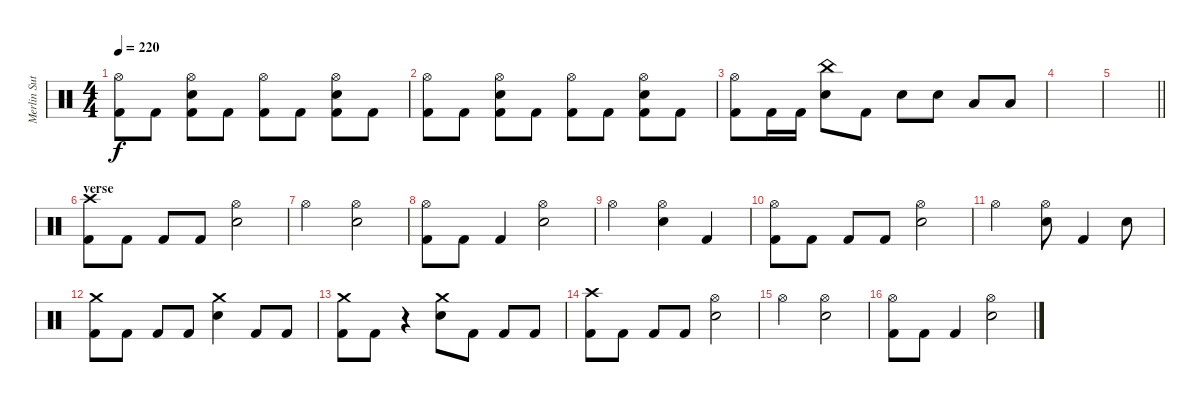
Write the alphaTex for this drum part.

\track ("Merlin Sutter" "Merlin Sut") {instrument percussion}
\staff {score}
\articulation defaults
\ts (4 4)
\tempo 220
\clef neutral
\ks c
("Hi-Hat (open)" "Kick (hit) 2").8{dy f} "Kick (hit) 2".8 ("Hi-Hat (open)" "Snare (hit) 2" "Kick (hit) 2").8 "Kick (hit) 2".8 ("Hi-Hat (open)" "Kick (hit) 2").8 "Kick (hit) 2".8 ("Hi-Hat (open)" "Snare (hit) 2" "Kick (hit) 2").8 "Kick (hit) 2".8 |
("Hi-Hat (open)" "Kick (hit) 2").8 "Kick (hit) 2".8 ("Hi-Hat (open)" "Snare (hit) 2" "Kick (hit) 2").8 "Kick (hit) 2".8 ("Hi-Hat (open)" "Kick (hit) 2").8 "Kick (hit) 2".8 ("Hi-Hat (open)" "Snare (hit) 2" "Kick (hit) 2").8 "Kick (hit) 2".8 |
("Hi-Hat (open)" "Kick (hit) 2").8 "Kick (hit) 2".16 "Kick (hit) 2".16 ("China (hit)" "Snare (hit) 2").8 "Kick (hit) 2".8 "Snare (hit) 2".8 "Snare (hit) 2".8 "Low Tom (hit)".8 "Low Tom (hit)".8 |
|
\barLineRight lightlight
|
\section ("" "verse")
("Crash high (hit)" "Kick (hit) 2").8 "Kick (hit) 2".8 "Kick (hit) 2".8 "Kick (hit) 2".8 ("Hi-Hat (open)" "Snare (hit) 2").2 |
"Hi-Hat (open)".2 ("Hi-Hat (open)" "Snare (hit) 2").2 |
("Hi-Hat (open)" "Kick (hit) 2").8 "Kick (hit) 2".8 "Kick (hit) 2".4 ("Hi-Hat (open)" "Snare (hit) 2").2 |
"Hi-Hat (open)".2 ("Hi-Hat (open)" "Snare (hit) 2").4 "Kick (hit) 2".4 |
("Hi-Hat (open)" "Kick (hit) 2").8 "Kick (hit) 2".8 "Kick (hit) 2".8 "Kick (hit) 2".8 ("Hi-Hat (open)" "Snare (hit) 2").2 |
"Hi-Hat (open)".2 ("Hi-Hat (open)" "Snare (hit) 2").8 "Kick (hit) 2".4 "Snare (hit) 2".8 |
("Crash medium (hit)" "Kick (hit) 2").8 "Kick (hit) 2".8 "Kick (hit) 2".8 "Kick (hit) 2".8 ("Crash medium (hit)" "Snare (hit) 2").4 "Kick (hit) 2".8 "Kick (hit) 2".8 |
("Crash medium (hit)" "Kick (hit) 2").8 "Kick (hit) 2".8 r.4 ("Crash medium (hit)" "Snare (hit) 2").8 "Kick (hit) 2".8 "Kick (hit) 2".8 "Kick (hit) 2".8 |
("Crash high (hit)" "Kick (hit) 2").8 "Kick (hit) 2".8 "Kick (hit) 2".8 "Kick (hit) 2".8 ("Hi-Hat (open)" "Snare (hit) 2").2 |
"Hi-Hat (open)".2 ("Hi-Hat (open)" "Snare (hit) 2").2 |
("Hi-Hat (open)" "Kick (hit) 2").8 "Kick (hit) 2".8 "Kick (hit) 2".4 ("Hi-Hat (open)" "Snare (hit) 2").2
